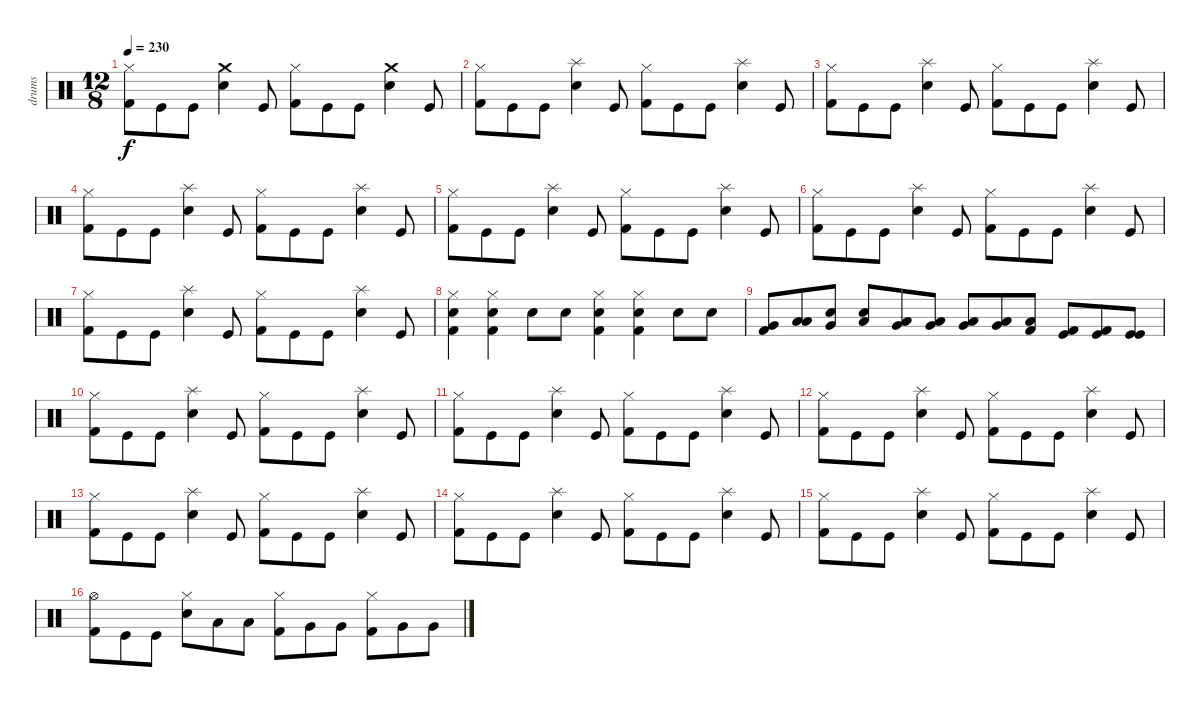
\track ("drums" "drums") {instrument percussion}
\staff {score}
\articulation defaults
\ts (12 8)
\tempo 230
\clef neutral
\ks c
("Hi-Hat (closed)" "Kick (hit) 2").8{dy f} "Kick (hit)".8 "Kick (hit)".8 ("Crash medium (hit)" "Snare (hit) 2").4 "Kick (hit)".8 ("Hi-Hat (closed)" "Kick (hit) 2").8 "Kick (hit)".8 "Kick (hit)".8 ("Crash medium (hit)" "Snare (hit) 2").4 "Kick (hit)".8 |
("Hi-Hat (closed)" "Kick (hit) 2").8 "Kick (hit)".8 "Kick (hit)".8 ("Splash (hit)" "Snare (hit) 2").4 "Kick (hit)".8 ("Hi-Hat (closed)" "Kick (hit) 2").8 "Kick (hit)".8 "Kick (hit)".8 ("Splash (hit)" "Snare (hit) 2").4 "Kick (hit)".8 |
("Hi-Hat (closed)" "Kick (hit) 2").8 "Kick (hit)".8 "Kick (hit)".8 ("Splash (hit)" "Snare (hit) 2").4 "Kick (hit)".8 ("Hi-Hat (closed)" "Kick (hit) 2").8 "Kick (hit)".8 "Kick (hit)".8 ("Splash (hit)" "Snare (hit) 2").4 "Kick (hit)".8 |
("Hi-Hat (closed)" "Kick (hit) 2").8 "Kick (hit)".8 "Kick (hit)".8 ("Splash (hit)" "Snare (hit) 2").4 "Kick (hit)".8 ("Hi-Hat (closed)" "Kick (hit) 2").8 "Kick (hit)".8 "Kick (hit)".8 ("Splash (hit)" "Snare (hit) 2").4 "Kick (hit)".8 |
("Hi-Hat (closed)" "Kick (hit) 2").8 "Kick (hit)".8 "Kick (hit)".8 ("Splash (hit)" "Snare (hit) 2").4 "Kick (hit)".8 ("Hi-Hat (closed)" "Kick (hit) 2").8 "Kick (hit)".8 "Kick (hit)".8 ("Splash (hit)" "Snare (hit) 2").4 "Kick (hit)".8 |
("Hi-Hat (closed)" "Kick (hit) 2").8 "Kick (hit)".8 "Kick (hit)".8 ("Splash (hit)" "Snare (hit) 2").4 "Kick (hit)".8 ("Hi-Hat (closed)" "Kick (hit) 2").8 "Kick (hit)".8 "Kick (hit)".8 ("Splash (hit)" "Snare (hit) 2").4 "Kick (hit)".8 |
("Hi-Hat (closed)" "Kick (hit) 2").8 "Kick (hit)".8 "Kick (hit)".8 ("Splash (hit)" "Snare (hit) 2").4 "Kick (hit)".8 ("Hi-Hat (closed)" "Kick (hit) 2").8 "Kick (hit)".8 "Kick (hit)".8 ("Splash (hit)" "Snare (hit) 2").4 "Kick (hit)".8 |
("Kick (hit) 2" "Hi-Hat (closed)" "Snare (hit) 2").4 ("Kick (hit) 2" "Hi-Hat (closed)" "Snare (hit) 2").4 "Snare (hit) 2".8 "Snare (hit) 2".8 ("Kick (hit) 2" "Hi-Hat (closed)" "Snare (hit) 2").4 ("Hi-Hat (closed)" "Snare (hit) 2" "Kick (hit) 2").4 "Snare (hit) 2".8 "Snare (hit) 2".8 |
("Kick (hit) 2" "Very Low Tom (hit)").8 ("Low Floor Tom (hit)" "Low Tom (hit)").8 ("Very Low Tom (hit)" "Snare (hit) 2").8 ("Low Tom (hit)" "Snare (hit) 2").8 ("Very Low Tom (hit)" "Low Tom (hit)").8 ("Very Low Tom (hit)" "Low Tom (hit)").8 ("Low Floor Tom (hit)" "Very Low Tom (hit)").8 ("Low Floor Tom (hit)" "Very Low Tom (hit)").8 ("Kick (hit) 2" "Low Floor Tom (hit)").8 ("Kick (hit)" "Kick (hit) 2").8 ("Kick (hit) 2" "Kick (hit)").8 ("Kick (hit)" "Kick (hit)").8 |
("Hi-Hat (closed)" "Kick (hit) 2").8 "Kick (hit)".8 "Kick (hit)".8 ("Splash (hit)" "Snare (hit) 2").4 "Kick (hit)".8 ("Hi-Hat (closed)" "Kick (hit) 2").8 "Kick (hit)".8 "Kick (hit)".8 ("Splash (hit)" "Snare (hit) 2").4 "Kick (hit)".8 |
("Hi-Hat (closed)" "Kick (hit) 2").8 "Kick (hit)".8 "Kick (hit)".8 ("Splash (hit)" "Snare (hit) 2").4 "Kick (hit)".8 ("Hi-Hat (closed)" "Kick (hit) 2").8 "Kick (hit)".8 "Kick (hit)".8 ("Splash (hit)" "Snare (hit) 2").4 "Kick (hit)".8 |
("Hi-Hat (closed)" "Kick (hit) 2").8 "Kick (hit)".8 "Kick (hit)".8 ("Splash (hit)" "Snare (hit) 2").4 "Kick (hit)".8 ("Hi-Hat (closed)" "Kick (hit) 2").8 "Kick (hit)".8 "Kick (hit)".8 ("Splash (hit)" "Snare (hit) 2").4 "Kick (hit)".8 |
("Hi-Hat (closed)" "Kick (hit) 2").8 "Kick (hit)".8 "Kick (hit)".8 ("Splash (hit)" "Snare (hit) 2").4 "Kick (hit)".8 ("Hi-Hat (closed)" "Kick (hit) 2").8 "Kick (hit)".8 "Kick (hit)".8 ("Splash (hit)" "Snare (hit) 2").4 "Kick (hit)".8 |
("Hi-Hat (closed)" "Kick (hit) 2").8 "Kick (hit)".8 "Kick (hit)".8 ("Splash (hit)" "Snare (hit) 2").4 "Kick (hit)".8 ("Hi-Hat (closed)" "Kick (hit) 2").8 "Kick (hit)".8 "Kick (hit)".8 ("Splash (hit)" "Snare (hit) 2").4 "Kick (hit)".8 |
("Hi-Hat (closed)" "Kick (hit) 2").8 "Kick (hit)".8 "Kick (hit)".8 ("Splash (hit)" "Snare (hit) 2").4 "Kick (hit)".8 ("Hi-Hat (closed)" "Kick (hit) 2").8 "Kick (hit)".8 "Kick (hit)".8 ("Splash (hit)" "Snare (hit) 2").4 "Kick (hit)".8 |
("Hi-Hat (open)" "Kick (hit) 2").8 "Kick (hit)".8 "Kick (hit)".8 ("Hi-Hat (closed)" "Snare (hit) 2").8 "Low Floor Tom (hit)".8 "Low Floor Tom (hit)".8 ("Hi-Hat (closed)" "Kick (hit) 2").8 "Very Low Tom (hit)".8 "Very Low Tom (hit)".8 ("Hi-Hat (closed)" "Kick (hit) 2").8 "Very Low Tom (hit)".8 "Very Low Tom (hit)".8
